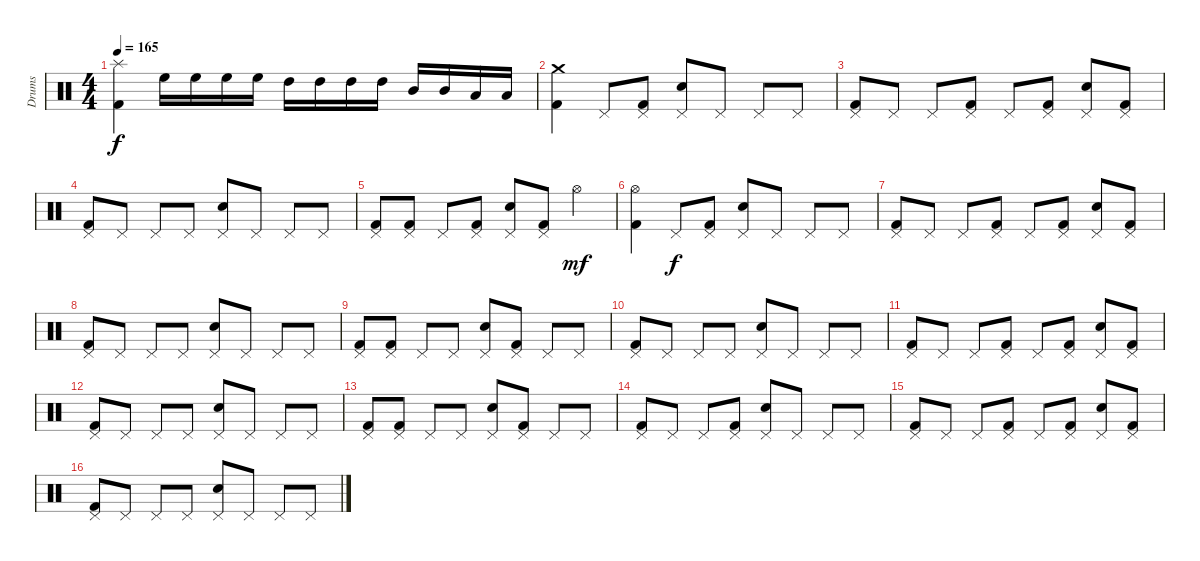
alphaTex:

\track ("Drums" "Drums") {instrument percussion}
\staff {score}
\articulation defaults
\ts (4 4)
\tempo 165
\clef neutral
\ks c
("Splash (hit)" "Kick (hit) 2").4{dy f} "High Floor Tom (hit)".16 "High Floor Tom (hit)".16 "High Floor Tom (hit)".16 "High Floor Tom (hit)".16 "High Tom (hit)".16 "High Tom (hit)".16 "High Tom (hit)".16 "High Tom (hit)".16 "Mid Tom (hit)".16 "Mid Tom (hit)".16 "Low Tom (hit)".16 "Low Tom (hit)".16 |
("Crash medium (hit)" "Kick (hit) 2").4 "Pedal Hi-Hat (hit)".8 ("Pedal Hi-Hat (hit)" "Kick (hit) 2").8 ("Pedal Hi-Hat (hit)" "Electric Snare (hit)").8 "Pedal Hi-Hat (hit)".8 "Pedal Hi-Hat (hit)".8 "Pedal Hi-Hat (hit)".8 |
("Pedal Hi-Hat (hit)" "Kick (hit) 2").8 "Pedal Hi-Hat (hit)".8 "Pedal Hi-Hat (hit)".8 ("Pedal Hi-Hat (hit)" "Kick (hit) 2").8 "Pedal Hi-Hat (hit)".8 ("Pedal Hi-Hat (hit)" "Kick (hit) 2").8 ("Pedal Hi-Hat (hit)" "Electric Snare (hit)").8 ("Pedal Hi-Hat (hit)" "Kick (hit) 2").8 |
("Pedal Hi-Hat (hit)" "Kick (hit) 2").8 "Pedal Hi-Hat (hit)".8 "Pedal Hi-Hat (hit)".8 "Pedal Hi-Hat (hit)".8 ("Pedal Hi-Hat (hit)" "Electric Snare (hit)").8 "Pedal Hi-Hat (hit)".8 "Pedal Hi-Hat (hit)".8 "Pedal Hi-Hat (hit)".8 |
("Pedal Hi-Hat (hit)" "Kick (hit) 2").8 ("Pedal Hi-Hat (hit)" "Kick (hit) 2").8 "Pedal Hi-Hat (hit)".8 ("Pedal Hi-Hat (hit)" "Kick (hit) 2").8 ("Pedal Hi-Hat (hit)" "Electric Snare (hit)").8 ("Pedal Hi-Hat (hit)" "Kick (hit) 2").8 "Hi-Hat (open)".4{dy mf} |
("Hi-Hat (open)" "Kick (hit) 2").4 "Pedal Hi-Hat (hit)".8{dy f} ("Pedal Hi-Hat (hit)" "Kick (hit) 2").8 ("Pedal Hi-Hat (hit)" "Electric Snare (hit)").8 "Pedal Hi-Hat (hit)".8 "Pedal Hi-Hat (hit)".8 "Pedal Hi-Hat (hit)".8 |
("Pedal Hi-Hat (hit)" "Kick (hit) 2").8 "Pedal Hi-Hat (hit)".8 "Pedal Hi-Hat (hit)".8 ("Pedal Hi-Hat (hit)" "Kick (hit) 2").8 "Pedal Hi-Hat (hit)".8 ("Pedal Hi-Hat (hit)" "Kick (hit) 2").8 ("Pedal Hi-Hat (hit)" "Electric Snare (hit)").8 ("Pedal Hi-Hat (hit)" "Kick (hit) 2").8 |
("Pedal Hi-Hat (hit)" "Kick (hit) 2").8 "Pedal Hi-Hat (hit)".8 "Pedal Hi-Hat (hit)".8 "Pedal Hi-Hat (hit)".8 ("Pedal Hi-Hat (hit)" "Electric Snare (hit)").8 "Pedal Hi-Hat (hit)".8 "Pedal Hi-Hat (hit)".8 "Pedal Hi-Hat (hit)".8 |
("Pedal Hi-Hat (hit)" "Kick (hit) 2").8 ("Pedal Hi-Hat (hit)" "Kick (hit) 2").8 "Pedal Hi-Hat (hit)".8 "Pedal Hi-Hat (hit)".8 ("Pedal Hi-Hat (hit)" "Electric Snare (hit)").8 ("Pedal Hi-Hat (hit)" "Kick (hit) 2").8 "Pedal Hi-Hat (hit)".8 "Pedal Hi-Hat (hit)".8 |
("Pedal Hi-Hat (hit)" "Kick (hit) 2").8 "Pedal Hi-Hat (hit)".8 "Pedal Hi-Hat (hit)".8 "Pedal Hi-Hat (hit)".8 ("Pedal Hi-Hat (hit)" "Electric Snare (hit)").8 "Pedal Hi-Hat (hit)".8 "Pedal Hi-Hat (hit)".8 "Pedal Hi-Hat (hit)".8 |
("Pedal Hi-Hat (hit)" "Kick (hit) 2").8 "Pedal Hi-Hat (hit)".8 "Pedal Hi-Hat (hit)".8 ("Pedal Hi-Hat (hit)" "Kick (hit) 2").8 "Pedal Hi-Hat (hit)".8 ("Pedal Hi-Hat (hit)" "Kick (hit) 2").8 ("Pedal Hi-Hat (hit)" "Electric Snare (hit)").8 ("Pedal Hi-Hat (hit)" "Kick (hit) 2").8 |
("Pedal Hi-Hat (hit)" "Kick (hit) 2").8 "Pedal Hi-Hat (hit)".8 "Pedal Hi-Hat (hit)".8 "Pedal Hi-Hat (hit)".8 ("Pedal Hi-Hat (hit)" "Electric Snare (hit)").8 "Pedal Hi-Hat (hit)".8 "Pedal Hi-Hat (hit)".8 "Pedal Hi-Hat (hit)".8 |
("Pedal Hi-Hat (hit)" "Kick (hit) 2").8 ("Pedal Hi-Hat (hit)" "Kick (hit) 2").8 "Pedal Hi-Hat (hit)".8 "Pedal Hi-Hat (hit)".8 ("Pedal Hi-Hat (hit)" "Electric Snare (hit)").8 ("Pedal Hi-Hat (hit)" "Kick (hit) 2").8 "Pedal Hi-Hat (hit)".8 "Pedal Hi-Hat (hit)".8 |
("Pedal Hi-Hat (hit)" "Kick (hit) 2").8 "Pedal Hi-Hat (hit)".8 "Pedal Hi-Hat (hit)".8 ("Pedal Hi-Hat (hit)" "Kick (hit) 2").8 ("Pedal Hi-Hat (hit)" "Electric Snare (hit)").8 "Pedal Hi-Hat (hit)".8 "Pedal Hi-Hat (hit)".8 "Pedal Hi-Hat (hit)".8 |
("Pedal Hi-Hat (hit)" "Kick (hit) 2").8 "Pedal Hi-Hat (hit)".8 "Pedal Hi-Hat (hit)".8 ("Pedal Hi-Hat (hit)" "Kick (hit) 2").8 "Pedal Hi-Hat (hit)".8 ("Pedal Hi-Hat (hit)" "Kick (hit) 2").8 ("Pedal Hi-Hat (hit)" "Electric Snare (hit)").8 ("Pedal Hi-Hat (hit)" "Kick (hit) 2").8 |
("Pedal Hi-Hat (hit)" "Kick (hit) 2").8 "Pedal Hi-Hat (hit)".8 "Pedal Hi-Hat (hit)".8 "Pedal Hi-Hat (hit)".8 ("Pedal Hi-Hat (hit)" "Electric Snare (hit)").8 "Pedal Hi-Hat (hit)".8 "Pedal Hi-Hat (hit)".8 "Pedal Hi-Hat (hit)".8
